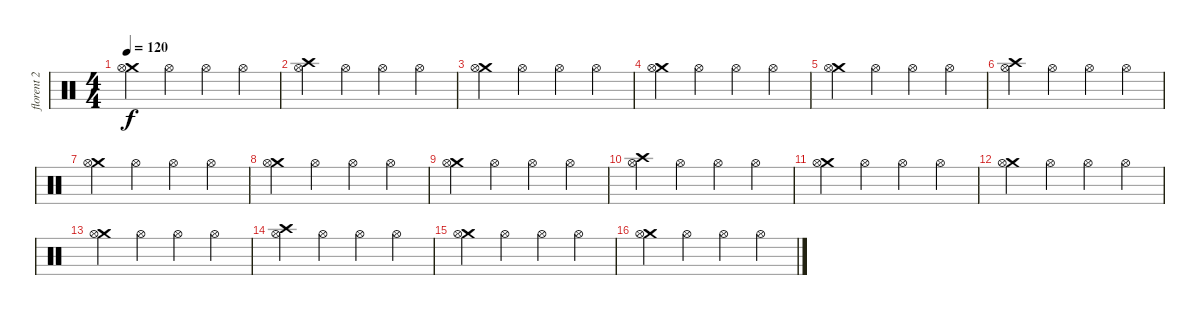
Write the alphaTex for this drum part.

\track ("florent 2" "florent 2") {instrument percussion}
\staff {score}
\articulation defaults
\ts (4 4)
\tempo 120
\clef neutral
\ks c
("Crash medium (hit)" "Hi-Hat (open)").4{dy f} "Hi-Hat (open)".4 "Hi-Hat (open)".4 "Hi-Hat (open)".4 |
("Crash high (hit)" "Hi-Hat (open)").4 "Hi-Hat (open)".4 "Hi-Hat (open)".4 "Hi-Hat (open)".4 |
("Crash medium (hit)" "Hi-Hat (open)").4 "Hi-Hat (open)".4 "Hi-Hat (open)".4 "Hi-Hat (open)".4 |
("Crash medium (hit)" "Hi-Hat (open)").4 "Hi-Hat (open)".4 "Hi-Hat (open)".4 "Hi-Hat (open)".4 |
("Crash medium (hit)" "Hi-Hat (open)").4 "Hi-Hat (open)".4 "Hi-Hat (open)".4 "Hi-Hat (open)".4 |
("Crash high (hit)" "Hi-Hat (open)").4 "Hi-Hat (open)".4 "Hi-Hat (open)".4 "Hi-Hat (open)".4 |
("Crash medium (hit)" "Hi-Hat (open)").4 "Hi-Hat (open)".4 "Hi-Hat (open)".4 "Hi-Hat (open)".4 |
("Crash medium (hit)" "Hi-Hat (open)").4 "Hi-Hat (open)".4 "Hi-Hat (open)".4 "Hi-Hat (open)".4 |
("Crash medium (hit)" "Hi-Hat (open)").4 "Hi-Hat (open)".4 "Hi-Hat (open)".4 "Hi-Hat (open)".4 |
("Crash high (hit)" "Hi-Hat (open)").4 "Hi-Hat (open)".4 "Hi-Hat (open)".4 "Hi-Hat (open)".4 |
("Crash medium (hit)" "Hi-Hat (open)").4 "Hi-Hat (open)".4 "Hi-Hat (open)".4 "Hi-Hat (open)".4 |
("Crash medium (hit)" "Hi-Hat (open)").4 "Hi-Hat (open)".4 "Hi-Hat (open)".4 "Hi-Hat (open)".4 |
("Crash medium (hit)" "Hi-Hat (open)").4 "Hi-Hat (open)".4 "Hi-Hat (open)".4 "Hi-Hat (open)".4 |
("Crash high (hit)" "Hi-Hat (open)").4 "Hi-Hat (open)".4 "Hi-Hat (open)".4 "Hi-Hat (open)".4 |
("Crash medium (hit)" "Hi-Hat (open)").4 "Hi-Hat (open)".4 "Hi-Hat (open)".4 "Hi-Hat (open)".4 |
("Crash medium (hit)" "Hi-Hat (open)").4 "Hi-Hat (open)".4 "Hi-Hat (open)".4 "Hi-Hat (open)".4
